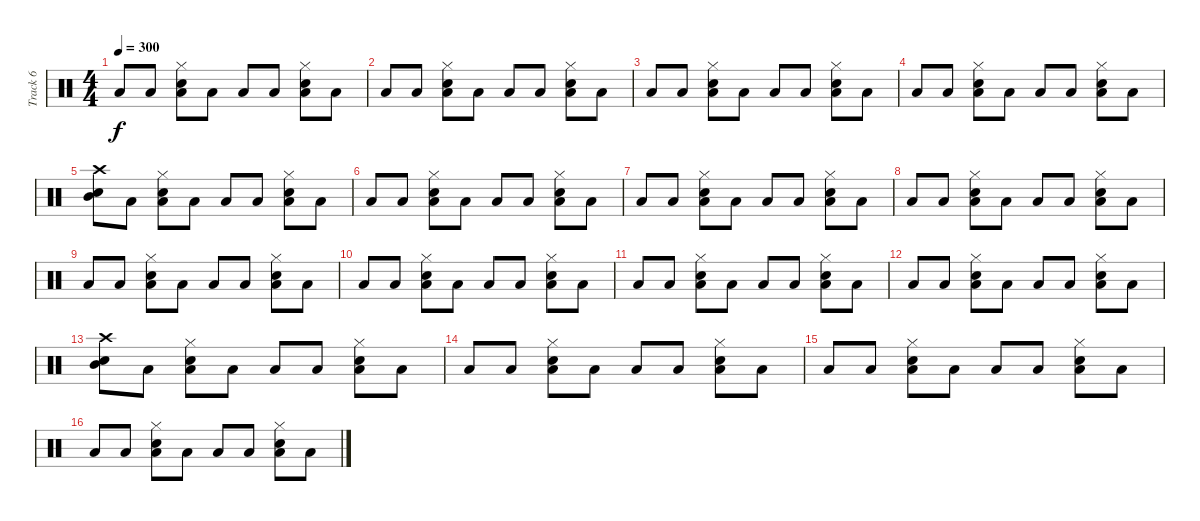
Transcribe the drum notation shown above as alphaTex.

\track ("Track 6" "Track 6") {instrument percussion}
\staff {score}
\articulation defaults
\ts (4 4)
\tempo 300
\clef neutral
\ks c "Low Floor Tom (hit)".8{dy f} "Low Floor Tom (hit)".8
("Electric Snare (hit)" "Low Tom (hit)" "Hi-Hat (closed)").8 "Low Floor Tom (hit)".8 "Low Floor Tom (hit)".8 "Low Floor Tom (hit)".8 ("Electric Snare (hit)" "Low Tom (hit)" "Hi-Hat (closed)").8 "Low Floor Tom (hit)".8 |
"Low Floor Tom (hit)".8 "Low Floor Tom (hit)".8 ("Electric Snare (hit)" "Low Tom (hit)" "Hi-Hat (closed)").8 "Low Floor Tom (hit)".8 "Low Floor Tom (hit)".8 "Low Floor Tom (hit)".8 ("Electric Snare (hit)" "Low Tom (hit)" "Hi-Hat (closed)").8 "Low Floor Tom (hit)".8 |
"Low Floor Tom (hit)".8 "Low Floor Tom (hit)".8 ("Electric Snare (hit)" "Low Tom (hit)" "Hi-Hat (closed)").8 "Low Floor Tom (hit)".8 "Low Floor Tom (hit)".8 "Low Floor Tom (hit)".8 ("Electric Snare (hit)" "Low Tom (hit)" "Hi-Hat (closed)").8 "Low Floor Tom (hit)".8 |
"Low Floor Tom (hit)".8 "Low Floor Tom (hit)".8 ("Electric Snare (hit)" "Low Tom (hit)" "Hi-Hat (closed)").8 "Low Floor Tom (hit)".8 "Low Floor Tom (hit)".8 "Low Floor Tom (hit)".8 ("Electric Snare (hit)" "Low Tom (hit)" "Hi-Hat (closed)").8 "Low Floor Tom (hit)".8 |
("Snare (hit) 2" "Mid Tom (hit)" "Crash high (hit)").8 "Low Floor Tom (hit)".8 ("Electric Snare (hit)" "Low Tom (hit)" "Hi-Hat (closed)").8 "Low Floor Tom (hit)".8 "Low Floor Tom (hit)".8 "Low Floor Tom (hit)".8 ("Electric Snare (hit)" "Low Tom (hit)" "Hi-Hat (closed)").8 "Low Floor Tom (hit)".8 |
"Low Floor Tom (hit)".8 "Low Floor Tom (hit)".8 ("Electric Snare (hit)" "Low Tom (hit)" "Hi-Hat (closed)").8 "Low Floor Tom (hit)".8 "Low Floor Tom (hit)".8 "Low Floor Tom (hit)".8 ("Electric Snare (hit)" "Low Tom (hit)" "Hi-Hat (closed)").8 "Low Floor Tom (hit)".8 |
"Low Floor Tom (hit)".8 "Low Floor Tom (hit)".8 ("Electric Snare (hit)" "Low Tom (hit)" "Hi-Hat (closed)").8 "Low Floor Tom (hit)".8 "Low Floor Tom (hit)".8 "Low Floor Tom (hit)".8 ("Electric Snare (hit)" "Low Tom (hit)" "Hi-Hat (closed)").8 "Low Floor Tom (hit)".8 |
"Low Floor Tom (hit)".8 "Low Floor Tom (hit)".8 ("Electric Snare (hit)" "Low Tom (hit)" "Hi-Hat (closed)").8 "Low Floor Tom (hit)".8 "Low Floor Tom (hit)".8 "Low Floor Tom (hit)".8 ("Electric Snare (hit)" "Low Tom (hit)" "Hi-Hat (closed)").8 "Low Floor Tom (hit)".8 |
"Low Floor Tom (hit)".8 "Low Floor Tom (hit)".8 ("Electric Snare (hit)" "Low Tom (hit)" "Hi-Hat (closed)").8 "Low Floor Tom (hit)".8 "Low Floor Tom (hit)".8 "Low Floor Tom (hit)".8 ("Electric Snare (hit)" "Low Tom (hit)" "Hi-Hat (closed)").8 "Low Floor Tom (hit)".8 |
"Low Floor Tom (hit)".8 "Low Floor Tom (hit)".8 ("Electric Snare (hit)" "Low Tom (hit)" "Hi-Hat (closed)").8 "Low Floor Tom (hit)".8 "Low Floor Tom (hit)".8 "Low Floor Tom (hit)".8 ("Electric Snare (hit)" "Low Tom (hit)" "Hi-Hat (closed)").8 "Low Floor Tom (hit)".8 |
"Low Floor Tom (hit)".8 "Low Floor Tom (hit)".8 ("Electric Snare (hit)" "Low Tom (hit)" "Hi-Hat (closed)").8 "Low Floor Tom (hit)".8 "Low Floor Tom (hit)".8 "Low Floor Tom (hit)".8 ("Electric Snare (hit)" "Low Tom (hit)" "Hi-Hat (closed)").8 "Low Floor Tom (hit)".8 |
"Low Floor Tom (hit)".8 "Low Floor Tom (hit)".8 ("Electric Snare (hit)" "Low Tom (hit)" "Hi-Hat (closed)").8 "Low Floor Tom (hit)".8 "Low Floor Tom (hit)".8 "Low Floor Tom (hit)".8 ("Electric Snare (hit)" "Low Tom (hit)" "Hi-Hat (closed)").8 "Low Floor Tom (hit)".8 |
("Snare (hit) 2" "Mid Tom (hit)" "Crash high (hit)").8 "Low Floor Tom (hit)".8 ("Electric Snare (hit)" "Low Tom (hit)" "Hi-Hat (closed)").8 "Low Floor Tom (hit)".8 "Low Floor Tom (hit)".8 "Low Floor Tom (hit)".8 ("Electric Snare (hit)" "Low Tom (hit)" "Hi-Hat (closed)").8 "Low Floor Tom (hit)".8 |
"Low Floor Tom (hit)".8 "Low Floor Tom (hit)".8 ("Electric Snare (hit)" "Low Tom (hit)" "Hi-Hat (closed)").8 "Low Floor Tom (hit)".8 "Low Floor Tom (hit)".8 "Low Floor Tom (hit)".8 ("Electric Snare (hit)" "Low Tom (hit)" "Hi-Hat (closed)").8 "Low Floor Tom (hit)".8 |
"Low Floor Tom (hit)".8 "Low Floor Tom (hit)".8 ("Electric Snare (hit)" "Low Tom (hit)" "Hi-Hat (closed)").8 "Low Floor Tom (hit)".8 "Low Floor Tom (hit)".8 "Low Floor Tom (hit)".8 ("Electric Snare (hit)" "Low Tom (hit)" "Hi-Hat (closed)").8 "Low Floor Tom (hit)".8 |
"Low Floor Tom (hit)".8 "Low Floor Tom (hit)".8 ("Electric Snare (hit)" "Low Tom (hit)" "Hi-Hat (closed)").8 "Low Floor Tom (hit)".8 "Low Floor Tom (hit)".8 "Low Floor Tom (hit)".8 ("Electric Snare (hit)" "Low Tom (hit)" "Hi-Hat (closed)").8 "Low Floor Tom (hit)".8
